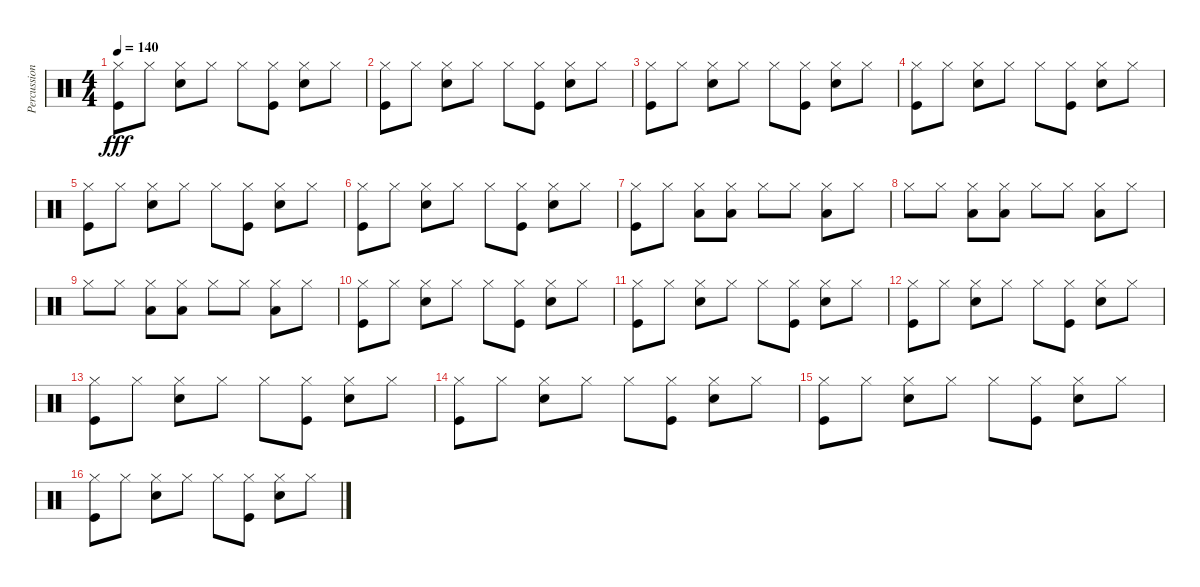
\track ("Percussion" "Percussion") {instrument percussion}
\staff {score}
\articulation defaults
\ts (4 4)
\tempo 140
\clef neutral
\ks c
("Hi-Hat (closed)" "Kick (hit)").8{dy fff} "Hi-Hat (closed)".8 ("Hi-Hat (closed)" "Snare (hit) 2").8 "Hi-Hat (closed)".8 "Hi-Hat (closed)".8 ("Hi-Hat (closed)" "Kick (hit)").8 ("Hi-Hat (closed)" "Snare (hit) 2").8 "Hi-Hat (closed)".8 |
("Hi-Hat (closed)" "Kick (hit)").8 "Hi-Hat (closed)".8 ("Hi-Hat (closed)" "Snare (hit) 2").8 "Hi-Hat (closed)".8 "Hi-Hat (closed)".8 ("Hi-Hat (closed)" "Kick (hit)").8 ("Hi-Hat (closed)" "Snare (hit) 2").8 "Hi-Hat (closed)".8 |
("Hi-Hat (closed)" "Kick (hit)").8 "Hi-Hat (closed)".8 ("Hi-Hat (closed)" "Snare (hit) 2").8 "Hi-Hat (closed)".8 "Hi-Hat (closed)".8 ("Hi-Hat (closed)" "Kick (hit)").8 ("Hi-Hat (closed)" "Snare (hit) 2").8 "Hi-Hat (closed)".8 |
("Hi-Hat (closed)" "Kick (hit)").8 "Hi-Hat (closed)".8 ("Hi-Hat (closed)" "Snare (hit) 2").8 "Hi-Hat (closed)".8 "Hi-Hat (closed)".8 ("Hi-Hat (closed)" "Kick (hit)").8 ("Hi-Hat (closed)" "Snare (hit) 2").8 "Hi-Hat (closed)".8 |
("Hi-Hat (closed)" "Kick (hit)").8 "Hi-Hat (closed)".8 ("Hi-Hat (closed)" "Snare (hit) 2").8 "Hi-Hat (closed)".8 "Hi-Hat (closed)".8 ("Hi-Hat (closed)" "Kick (hit)").8 ("Hi-Hat (closed)" "Snare (hit) 2").8 "Hi-Hat (closed)".8 |
("Hi-Hat (closed)" "Kick (hit)").8 "Hi-Hat (closed)".8 ("Hi-Hat (closed)" "Snare (hit) 2").8 "Hi-Hat (closed)".8 "Hi-Hat (closed)".8 ("Hi-Hat (closed)" "Kick (hit)").8 ("Hi-Hat (closed)" "Snare (hit) 2").8 "Hi-Hat (closed)".8 |
("Hi-Hat (closed)" "Kick (hit)").8 "Hi-Hat (closed)".8 ("Hi-Hat (closed)" "Low Tom (hit)").8 ("Hi-Hat (closed)" "Low Tom (hit)").8 "Hi-Hat (closed)".8 "Hi-Hat (closed)".8 ("Hi-Hat (closed)" "Low Tom (hit)").8 "Hi-Hat (closed)".8 |
"Hi-Hat (closed)".8 "Hi-Hat (closed)".8 ("Hi-Hat (closed)" "Low Tom (hit)").8 ("Hi-Hat (closed)" "Low Tom (hit)").8 "Hi-Hat (closed)".8 "Hi-Hat (closed)".8 ("Hi-Hat (closed)" "Low Tom (hit)").8 "Hi-Hat (closed)".8 |
"Hi-Hat (closed)".8 "Hi-Hat (closed)".8 ("Hi-Hat (closed)" "Low Tom (hit)").8 ("Hi-Hat (closed)" "Low Tom (hit)").8 "Hi-Hat (closed)".8 "Hi-Hat (closed)".8 ("Hi-Hat (closed)" "Low Tom (hit)").8 "Hi-Hat (closed)".8 |
("Hi-Hat (closed)" "Kick (hit)").8 "Hi-Hat (closed)".8 ("Hi-Hat (closed)" "Snare (hit) 2").8 "Hi-Hat (closed)".8 "Hi-Hat (closed)".8 ("Hi-Hat (closed)" "Kick (hit)").8 ("Hi-Hat (closed)" "Snare (hit) 2").8 "Hi-Hat (closed)".8 |
("Hi-Hat (closed)" "Kick (hit)").8 "Hi-Hat (closed)".8 ("Hi-Hat (closed)" "Snare (hit) 2").8 "Hi-Hat (closed)".8 "Hi-Hat (closed)".8 ("Hi-Hat (closed)" "Kick (hit)").8 ("Hi-Hat (closed)" "Snare (hit) 2").8 "Hi-Hat (closed)".8 |
("Hi-Hat (closed)" "Kick (hit)").8 "Hi-Hat (closed)".8 ("Hi-Hat (closed)" "Snare (hit) 2").8 "Hi-Hat (closed)".8 "Hi-Hat (closed)".8 ("Hi-Hat (closed)" "Kick (hit)").8 ("Hi-Hat (closed)" "Snare (hit) 2").8 "Hi-Hat (closed)".8 |
("Hi-Hat (closed)" "Kick (hit)").8 "Hi-Hat (closed)".8 ("Hi-Hat (closed)" "Snare (hit) 2").8 "Hi-Hat (closed)".8 "Hi-Hat (closed)".8 ("Hi-Hat (closed)" "Kick (hit)").8 ("Hi-Hat (closed)" "Snare (hit) 2").8 "Hi-Hat (closed)".8 |
("Hi-Hat (closed)" "Kick (hit)").8 "Hi-Hat (closed)".8 ("Hi-Hat (closed)" "Snare (hit) 2").8 "Hi-Hat (closed)".8 "Hi-Hat (closed)".8 ("Hi-Hat (closed)" "Kick (hit)").8 ("Hi-Hat (closed)" "Snare (hit) 2").8 "Hi-Hat (closed)".8 |
("Hi-Hat (closed)" "Kick (hit)").8 "Hi-Hat (closed)".8 ("Hi-Hat (closed)" "Snare (hit) 2").8 "Hi-Hat (closed)".8 "Hi-Hat (closed)".8 ("Hi-Hat (closed)" "Kick (hit)").8 ("Hi-Hat (closed)" "Snare (hit) 2").8 "Hi-Hat (closed)".8 |
("Hi-Hat (closed)" "Kick (hit)").8 "Hi-Hat (closed)".8 ("Hi-Hat (closed)" "Snare (hit) 2").8 "Hi-Hat (closed)".8 "Hi-Hat (closed)".8 ("Hi-Hat (closed)" "Kick (hit)").8 ("Hi-Hat (closed)" "Snare (hit) 2").8 "Hi-Hat (closed)".8
